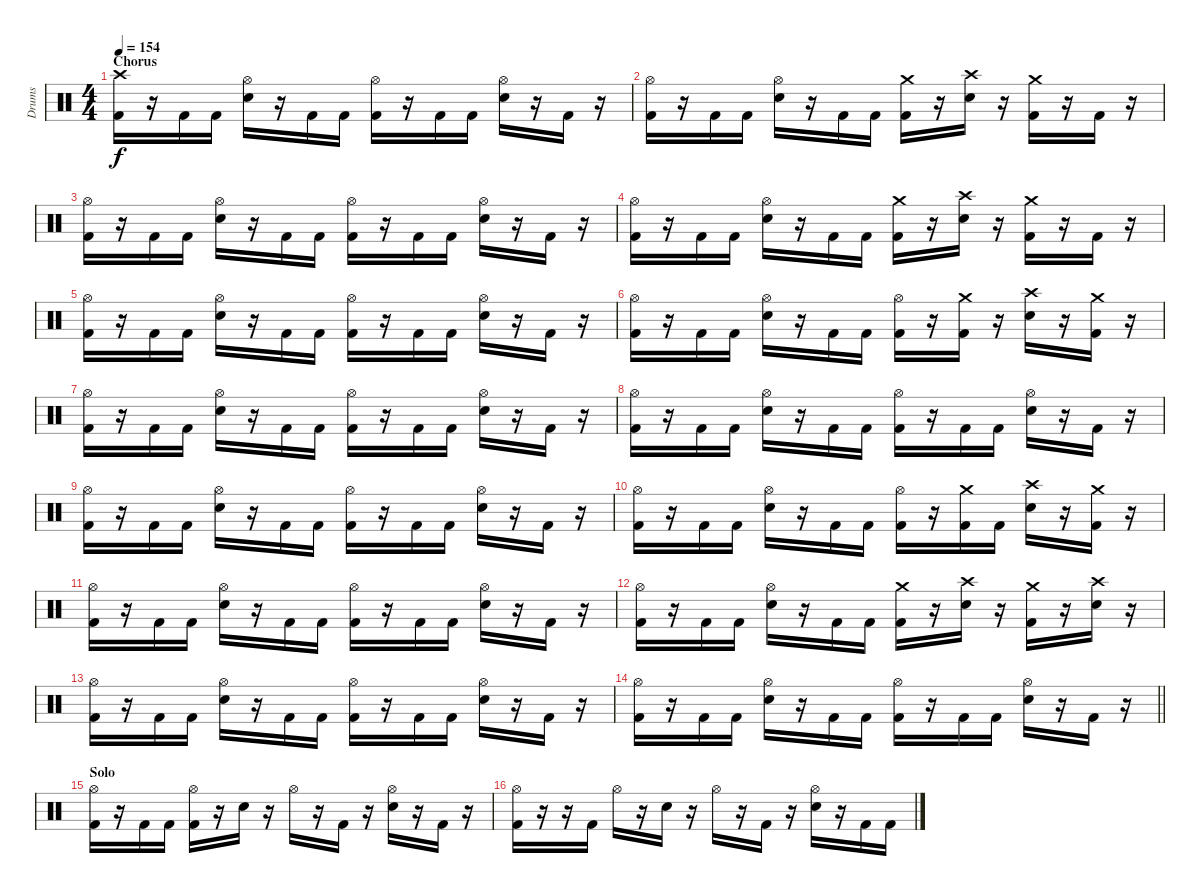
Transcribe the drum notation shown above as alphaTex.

\track ("Drums" "Drums") {instrument percussion}
\staff {score}
\articulation defaults
\ts (4 4)
\section ("" "Chorus")
\tempo 154
\clef neutral
\ks c
("Crash high (hit)" "Kick (hit) 2").16{dy f} r.16 "Kick (hit) 2".16 "Kick (hit) 2".16 ("Hi-Hat (open)" "Snare (hit) 2").16 r.16 "Kick (hit) 2".16 "Kick (hit) 2".16 ("Hi-Hat (open)" "Kick (hit) 2").16 r.16 "Kick (hit) 2".16 "Kick (hit) 2".16 ("Hi-Hat (open)" "Snare (hit) 2").16 r.16 "Kick (hit) 2".16 r.16 |
("Hi-Hat (open)" "Kick (hit) 2").16 r.16 "Kick (hit) 2".16 "Kick (hit) 2".16 ("Hi-Hat (open)" "Snare (hit) 2").16 r.16 "Kick (hit) 2".16 "Kick (hit) 2".16 ("Crash medium (hit)" "Kick (hit) 2").16 r.16 ("Crash high (hit)" "Snare (hit) 2").16 r.16 ("Crash medium (hit)" "Kick (hit) 2").16 r.16 "Kick (hit) 2".16 r.16 |
("Hi-Hat (open)" "Kick (hit) 2").16 r.16 "Kick (hit) 2".16 "Kick (hit) 2".16 ("Hi-Hat (open)" "Snare (hit) 2").16 r.16 "Kick (hit) 2".16 "Kick (hit) 2".16 ("Hi-Hat (open)" "Kick (hit) 2").16 r.16 "Kick (hit) 2".16 "Kick (hit) 2".16 ("Hi-Hat (open)" "Snare (hit) 2").16 r.16 "Kick (hit) 2".16 r.16 |
("Hi-Hat (open)" "Kick (hit) 2").16 r.16 "Kick (hit) 2".16 "Kick (hit) 2".16 ("Hi-Hat (open)" "Snare (hit) 2").16 r.16 "Kick (hit) 2".16 "Kick (hit) 2".16 ("Crash medium (hit)" "Kick (hit) 2").16 r.16 ("Crash high (hit)" "Snare (hit) 2").16 r.16 ("Crash medium (hit)" "Kick (hit) 2").16 r.16 "Kick (hit) 2".16 r.16 |
("Hi-Hat (open)" "Kick (hit) 2").16 r.16 "Kick (hit) 2".16 "Kick (hit) 2".16 ("Hi-Hat (open)" "Snare (hit) 2").16 r.16 "Kick (hit) 2".16 "Kick (hit) 2".16 ("Hi-Hat (open)" "Kick (hit) 2").16 r.16 "Kick (hit) 2".16 "Kick (hit) 2".16 ("Hi-Hat (open)" "Snare (hit) 2").16 r.16 "Kick (hit) 2".16 r.16 |
("Hi-Hat (open)" "Kick (hit) 2").16 r.16 "Kick (hit) 2".16 "Kick (hit) 2".16 ("Hi-Hat (open)" "Snare (hit) 2").16 r.16 "Kick (hit) 2".16 "Kick (hit) 2".16 ("Hi-Hat (open)" "Kick (hit) 2").16 r.16 ("Crash medium (hit)" "Kick (hit) 2").16 r.16 ("Crash high (hit)" "Snare (hit) 2").16 r.16 ("Crash medium (hit)" "Kick (hit) 2").16 r.16 |
("Hi-Hat (open)" "Kick (hit) 2").16 r.16 "Kick (hit) 2".16 "Kick (hit) 2".16 ("Hi-Hat (open)" "Snare (hit) 2").16 r.16 "Kick (hit) 2".16 "Kick (hit) 2".16 ("Hi-Hat (open)" "Kick (hit) 2").16 r.16 "Kick (hit) 2".16 "Kick (hit) 2".16 ("Hi-Hat (open)" "Snare (hit) 2").16 r.16 "Kick (hit) 2".16 r.16 |
("Hi-Hat (open)" "Kick (hit) 2").16 r.16 "Kick (hit) 2".16 "Kick (hit) 2".16 ("Hi-Hat (open)" "Snare (hit) 2").16 r.16 "Kick (hit) 2".16 "Kick (hit) 2".16 ("Hi-Hat (open)" "Kick (hit) 2").16 r.16 "Kick (hit) 2".16 "Kick (hit) 2".16 ("Hi-Hat (open)" "Snare (hit) 2").16 r.16 "Kick (hit) 2".16 r.16 |
("Hi-Hat (open)" "Kick (hit) 2").16 r.16 "Kick (hit) 2".16 "Kick (hit) 2".16 ("Hi-Hat (open)" "Snare (hit) 2").16 r.16 "Kick (hit) 2".16 "Kick (hit) 2".16 ("Hi-Hat (open)" "Kick (hit) 2").16 r.16 "Kick (hit) 2".16 "Kick (hit) 2".16 ("Hi-Hat (open)" "Snare (hit) 2").16 r.16 "Kick (hit) 2".16 r.16 |
("Hi-Hat (open)" "Kick (hit) 2").16 r.16 "Kick (hit) 2".16 "Kick (hit) 2".16 ("Hi-Hat (open)" "Snare (hit) 2").16 r.16 "Kick (hit) 2".16 "Kick (hit) 2".16 ("Hi-Hat (open)" "Kick (hit) 2").16 r.16 ("Crash medium (hit)" "Kick (hit) 2").16 "Kick (hit) 2".16 ("Crash high (hit)" "Snare (hit) 2").16 r.16 ("Crash medium (hit)" "Kick (hit) 2").16 r.16 |
("Hi-Hat (open)" "Kick (hit) 2").16 r.16 "Kick (hit) 2".16 "Kick (hit) 2".16 ("Hi-Hat (open)" "Snare (hit) 2").16 r.16 "Kick (hit) 2".16 "Kick (hit) 2".16 ("Hi-Hat (open)" "Kick (hit) 2").16 r.16 "Kick (hit) 2".16 "Kick (hit) 2".16 ("Hi-Hat (open)" "Snare (hit) 2").16 r.16 "Kick (hit) 2".16 r.16 |
("Hi-Hat (open)" "Kick (hit) 2").16 r.16 "Kick (hit) 2".16 "Kick (hit) 2".16 ("Hi-Hat (open)" "Snare (hit) 2").16 r.16 "Kick (hit) 2".16 "Kick (hit) 2".16 ("Crash medium (hit)" "Kick (hit) 2").16 r.16 ("Crash high (hit)" "Snare (hit) 2").16 r.16 ("Crash medium (hit)" "Kick (hit) 2").16 r.16 ("Crash high (hit)" "Snare (hit) 2").16 r.16 |
("Hi-Hat (open)" "Kick (hit) 2").16 r.16 "Kick (hit) 2".16 "Kick (hit) 2".16 ("Hi-Hat (open)" "Snare (hit) 2").16 r.16 "Kick (hit) 2".16 "Kick (hit) 2".16 ("Hi-Hat (open)" "Kick (hit) 2").16 r.16 "Kick (hit) 2".16 "Kick (hit) 2".16 ("Hi-Hat (open)" "Snare (hit) 2").16 r.16 "Kick (hit) 2".16 r.16 |
\barLineRight lightlight
("Hi-Hat (open)" "Kick (hit) 2").16 r.16 "Kick (hit) 2".16 "Kick (hit) 2".16 ("Hi-Hat (open)" "Snare (hit) 2").16 r.16 "Kick (hit) 2".16 "Kick (hit) 2".16 ("Hi-Hat (open)" "Kick (hit) 2").16 r.16 "Kick (hit) 2".16 "Kick (hit) 2".16 ("Hi-Hat (open)" "Snare (hit) 2").16 r.16 "Kick (hit) 2".16 r.16 |
\section ("" "Solo")
("Hi-Hat (open)" "Kick (hit) 2").16 r.16 "Kick (hit) 2".16 "Kick (hit) 2".16 ("Hi-Hat (open)" "Kick (hit) 2").16 r.16 "Snare (hit) 2".16 r.16 "Hi-Hat (open)".16 r.16 "Kick (hit) 2".16 r.16 ("Hi-Hat (open)" "Snare (hit) 2").16 r.16 "Kick (hit) 2".16 r.16 |
("Hi-Hat (open)" "Kick (hit) 2").16 r.16 r.16 "Kick (hit) 2".16 "Hi-Hat (open)".16 r.16 "Snare (hit) 2".16 r.16 "Hi-Hat (open)".16 r.16 "Kick (hit) 2".16 r.16 ("Hi-Hat (open)" "Snare (hit) 2").16 r.16 "Kick (hit) 2".16 "Kick (hit) 2".16
